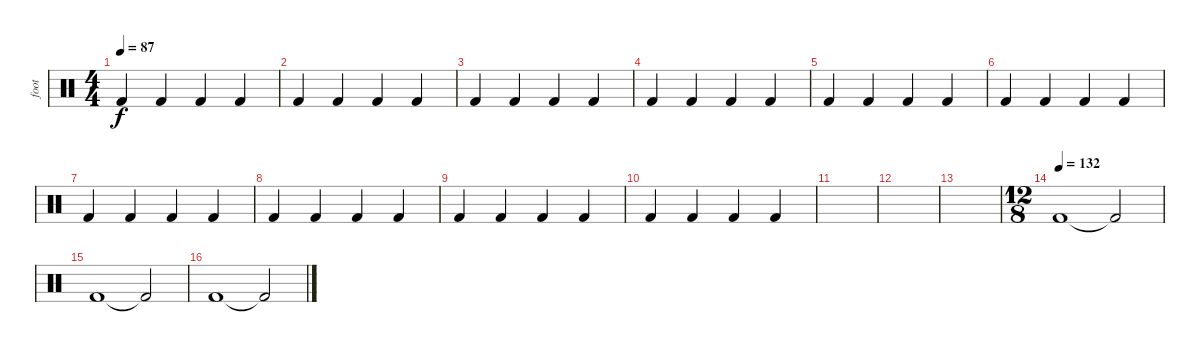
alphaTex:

\track ("foot" "foot") {instrument percussion}
\staff {score}
\articulation defaults
\ts (4 4)
\tempo 87
\clef neutral
\ks c "Kick (hit) 2".4{dy f} "Kick (hit) 2".4 "Kick (hit) 2".4 "Kick (hit) 2".4
|
"Kick (hit) 2".4 "Kick (hit) 2".4 "Kick (hit) 2".4 "Kick (hit) 2".4 |
"Kick (hit) 2".4 "Kick (hit) 2".4 "Kick (hit) 2".4 "Kick (hit) 2".4 |
"Kick (hit) 2".4 "Kick (hit) 2".4 "Kick (hit) 2".4 "Kick (hit) 2".4 |
"Kick (hit) 2".4 "Kick (hit) 2".4 "Kick (hit) 2".4 "Kick (hit) 2".4 |
"Kick (hit) 2".4 "Kick (hit) 2".4 "Kick (hit) 2".4 "Kick (hit) 2".4 |
"Kick (hit) 2".4 "Kick (hit) 2".4 "Kick (hit) 2".4 "Kick (hit) 2".4 |
"Kick (hit) 2".4 "Kick (hit) 2".4 "Kick (hit) 2".4 "Kick (hit) 2".4 |
"Kick (hit) 2".4 "Kick (hit) 2".4 "Kick (hit) 2".4 "Kick (hit) 2".4 |
"Kick (hit) 2".4 "Kick (hit) 2".4 "Kick (hit) 2".4 "Kick (hit) 2".4 |
|
|
|
\ts (12 8)
\tempo (132)
"Kick (hit) 2".1 "Kick (hit) 2"{t}.2 |
"Kick (hit) 2".1 "Kick (hit) 2"{t}.2 |
"Kick (hit) 2".1 "Kick (hit) 2"{t}.2
